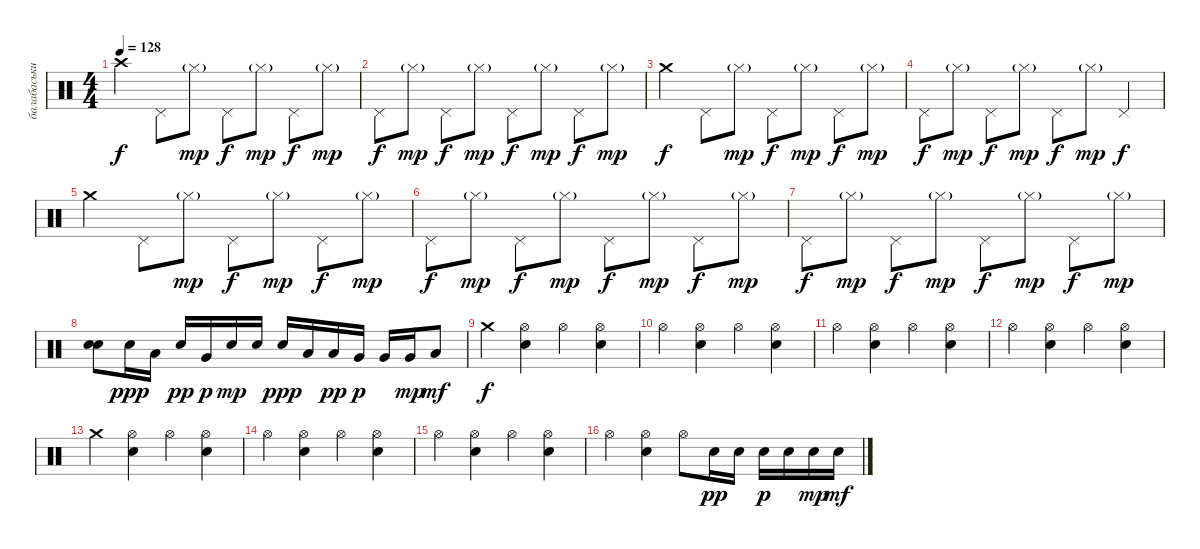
\track ("балабаськи" "балабаськи") {instrument percussion}
\staff {score}
\articulation defaults
\ts (4 4)
\tempo 128
\clef neutral
\ks c "Crash high (hit)".4{dy f} "Pedal Hi-Hat (hit)".8 "Hi-Hat (closed)"{g}.8{dy mp} "Pedal Hi-Hat (hit)".8{dy f} "Hi-Hat (closed)"{g}.8{dy mp} "Pedal Hi-Hat (hit)".8{dy f} "Hi-Hat (closed)"{g}.8{dy mp}
|
"Pedal Hi-Hat (hit)".8{dy f} "Hi-Hat (closed)"{g}.8{dy mp} "Pedal Hi-Hat (hit)".8{dy f} "Hi-Hat (closed)"{g}.8{dy mp} "Pedal Hi-Hat (hit)".8{dy f} "Hi-Hat (closed)"{g}.8{dy mp} "Pedal Hi-Hat (hit)".8{dy f} "Hi-Hat (closed)"{g}.8{dy mp} |
"Crash medium (hit)".4{dy f} "Pedal Hi-Hat (hit)".8 "Hi-Hat (closed)"{g}.8{dy mp} "Pedal Hi-Hat (hit)".8{dy f} "Hi-Hat (closed)"{g}.8{dy mp} "Pedal Hi-Hat (hit)".8{dy f} "Hi-Hat (closed)"{g}.8{dy mp} |
"Pedal Hi-Hat (hit)".8{dy f} "Hi-Hat (closed)"{g}.8{dy mp} "Pedal Hi-Hat (hit)".8{dy f} "Hi-Hat (closed)"{g}.8{dy mp} "Pedal Hi-Hat (hit)".8{dy f} "Hi-Hat (closed)"{g}.8{dy mp} "Pedal Hi-Hat (hit)".4{dy f} |
"Crash medium (hit)".4 "Pedal Hi-Hat (hit)".8 "Hi-Hat (closed)"{g}.8{dy mp} "Pedal Hi-Hat (hit)".8{dy f} "Hi-Hat (closed)"{g}.8{dy mp} "Pedal Hi-Hat (hit)".8{dy f} "Hi-Hat (closed)"{g}.8{dy mp} |
"Pedal Hi-Hat (hit)".8{dy f} "Hi-Hat (closed)"{g}.8{dy mp} "Pedal Hi-Hat (hit)".8{dy f} "Hi-Hat (closed)"{g}.8{dy mp} "Pedal Hi-Hat (hit)".8{dy f} "Hi-Hat (closed)"{g}.8{dy mp} "Pedal Hi-Hat (hit)".8{dy f} "Hi-Hat (closed)"{g}.8{dy mp} |
"Pedal Hi-Hat (hit)".8{dy f} "Hi-Hat (closed)"{g}.8{dy mp} "Pedal Hi-Hat (hit)".8{dy f} "Hi-Hat (closed)"{g}.8{dy mp} "Pedal Hi-Hat (hit)".8{dy f} "Hi-Hat (closed)"{g}.8{dy mp} "Pedal Hi-Hat (hit)".8{dy f} "Hi-Hat (closed)"{g}.8{dy mp} |
("Snare (hit) 2" "Electric Snare (hit)").8 "Snare (hit) 2".16{dy ppp} "Low Tom (hit)".16 "Snare (hit) 2".16{dy pp} "Very Low Tom (hit)".16{dy p} "Snare (hit) 2".16{dy mp} "Snare (hit) 2".16 "Snare (hit) 2".16{dy ppp} "Low Tom (hit)".16 "Low Tom (hit)".16{dy pp} "Very Low Tom (hit)".16{dy p} "Very Low Tom (hit)".16 "Very Low Tom (hit)".16{dy mp} "Low Floor Tom (hit)".8{dy mf} |
"Crash medium (hit)".4{dy f} ("Hi-Hat (open)" "Snare (hit) 2").4 "Hi-Hat (open)".4 ("Hi-Hat (open)" "Snare (hit) 2").4 |
"Hi-Hat (open)".4 ("Hi-Hat (open)" "Snare (hit) 2").4 "Hi-Hat (open)".4 ("Hi-Hat (open)" "Snare (hit) 2").4 |
"Hi-Hat (open)".4 ("Hi-Hat (open)" "Snare (hit) 2").4 "Hi-Hat (open)".4 ("Hi-Hat (open)" "Snare (hit) 2").4 |
"Hi-Hat (open)".4 ("Hi-Hat (open)" "Snare (hit) 2").4 "Hi-Hat (open)".4 ("Hi-Hat (open)" "Snare (hit) 2").4 |
"Crash medium (hit)".4 ("Hi-Hat (open)" "Snare (hit) 2").4 "Hi-Hat (open)".4 ("Hi-Hat (open)" "Snare (hit) 2").4 |
"Hi-Hat (open)".4 ("Hi-Hat (open)" "Snare (hit) 2").4 "Hi-Hat (open)".4 ("Hi-Hat (open)" "Snare (hit) 2").4 |
"Hi-Hat (open)".4 ("Hi-Hat (open)" "Snare (hit) 2").4 "Hi-Hat (open)".4 ("Hi-Hat (open)" "Snare (hit) 2").4 |
"Hi-Hat (open)".4 ("Hi-Hat (open)" "Snare (hit) 2").4 "Hi-Hat (open)".8 "Snare (hit) 2".16{dy pp} "Snare (hit) 2".16 "Snare (hit) 2".16{dy p} "Snare (hit) 2".16 "Snare (hit) 2".16{dy mp} "Snare (hit) 2".16{dy mf}
